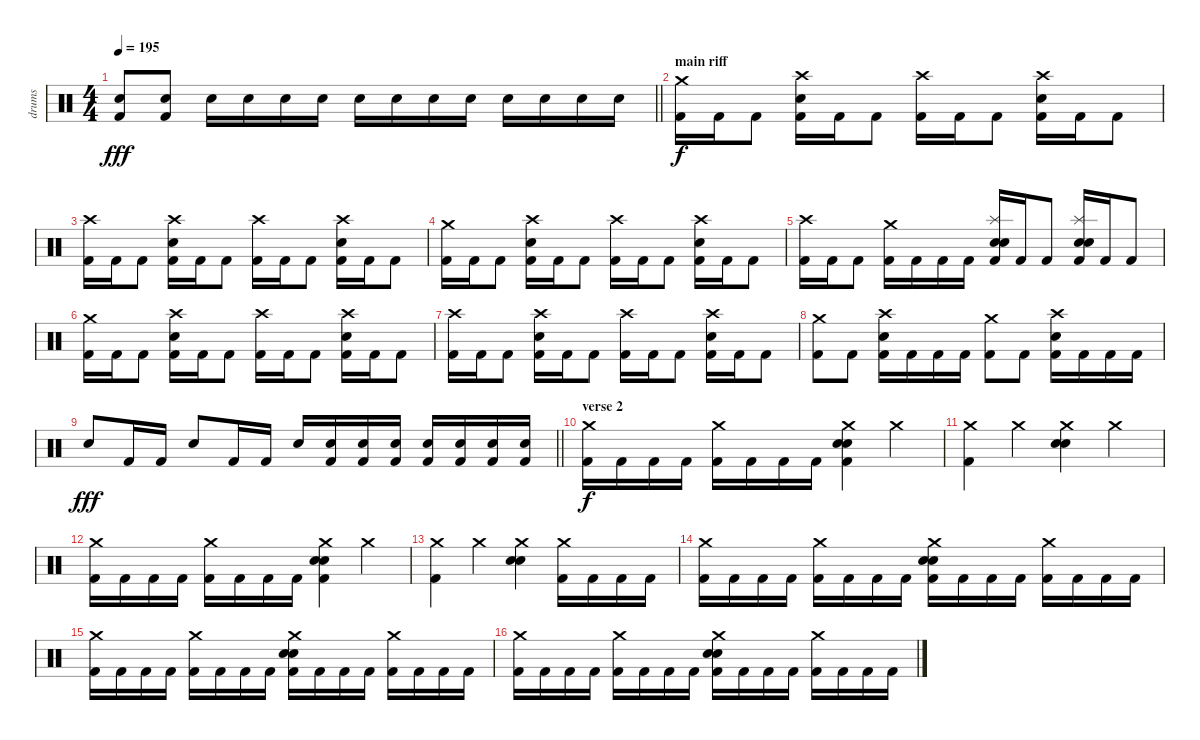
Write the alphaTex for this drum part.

\track ("drums" "drums") {instrument percussion bank 16}
\staff {score}
\articulation defaults
\ts (4 4)
\tempo 195
\clef neutral
\barLineRight lightlight
\ks c
("Electric Snare (hit)" "Kick (hit) 2").8{dy fff} ("Electric Snare (hit)" "Kick (hit) 2").8 "Electric Snare (hit)".16 "Electric Snare (hit)".16 "Electric Snare (hit)".16 "Electric Snare (hit)".16 "Electric Snare (hit)".16 "Electric Snare (hit)".16 "Electric Snare (hit)".16 "Electric Snare (hit)".16 "Electric Snare (hit)".16 "Electric Snare (hit)".16 "Electric Snare (hit)".16 "Electric Snare (hit)".16 |
\section ("" "main riff")
("Crash medium (hit)" "Kick (hit) 2").16{dy f} "Kick (hit) 2".16 "Kick (hit) 2".8 ("Crash high (hit)" "Electric Snare (hit)" "Kick (hit) 2").16 "Kick (hit) 2".16 "Kick (hit) 2".8 ("Crash high (hit)" "Kick (hit) 2").16 "Kick (hit) 2".16 "Kick (hit) 2".8 ("Crash high (hit)" "Electric Snare (hit)" "Kick (hit) 2").16 "Kick (hit) 2".16 "Kick (hit) 2".8 |
("Crash high (hit)" "Kick (hit) 2").16 "Kick (hit) 2".16 "Kick (hit) 2".8 ("Crash high (hit)" "Electric Snare (hit)" "Kick (hit) 2").16 "Kick (hit) 2".16 "Kick (hit) 2".8 ("Crash high (hit)" "Kick (hit) 2").16 "Kick (hit) 2".16 "Kick (hit) 2".8 ("Crash high (hit)" "Electric Snare (hit)" "Kick (hit) 2").16 "Kick (hit) 2".16 "Kick (hit) 2".8 |
("Crash medium (hit)" "Kick (hit) 2").16 "Kick (hit) 2".16 "Kick (hit) 2".8 ("Crash high (hit)" "Electric Snare (hit)" "Kick (hit) 2").16 "Kick (hit) 2".16 "Kick (hit) 2".8 ("Crash high (hit)" "Kick (hit) 2").16 "Kick (hit) 2".16 "Kick (hit) 2".8 ("Crash high (hit)" "Electric Snare (hit)" "Kick (hit) 2").16 "Kick (hit) 2".16 "Kick (hit) 2".8 |
("Crash high (hit)" "Kick (hit) 2").16 "Kick (hit) 2".16 "Kick (hit) 2".8 ("Crash medium (hit)" "Kick (hit) 2").16 "Kick (hit) 2".16 "Kick (hit) 2".16 "Kick (hit) 2".16 ("Splash (hit)" "Snare (hit) 2" "Electric Snare (hit)" "Kick (hit) 2").16 "Kick (hit) 2".16 "Kick (hit) 2".8 ("Splash (hit)" "Snare (hit) 2" "Electric Snare (hit)" "Kick (hit) 2").16 "Kick (hit) 2".16 "Kick (hit) 2".8 |
("Crash medium (hit)" "Kick (hit) 2").16 "Kick (hit) 2".16 "Kick (hit) 2".8 ("Crash high (hit)" "Electric Snare (hit)" "Kick (hit) 2").16 "Kick (hit) 2".16 "Kick (hit) 2".8 ("Crash high (hit)" "Kick (hit) 2").16 "Kick (hit) 2".16 "Kick (hit) 2".8 ("Crash high (hit)" "Electric Snare (hit)" "Kick (hit) 2").16 "Kick (hit) 2".16 "Kick (hit) 2".8 |
("Crash high (hit)" "Kick (hit) 2").16 "Kick (hit) 2".16 "Kick (hit) 2".8 ("Crash high (hit)" "Electric Snare (hit)" "Kick (hit) 2").16 "Kick (hit) 2".16 "Kick (hit) 2".8 ("Crash high (hit)" "Kick (hit) 2").16 "Kick (hit) 2".16 "Kick (hit) 2".8 ("Crash high (hit)" "Electric Snare (hit)" "Kick (hit) 2").16 "Kick (hit) 2".16 "Kick (hit) 2".8 |
("Crash medium (hit)" "Kick (hit) 2").8 "Kick (hit) 2".8 ("Crash high (hit)" "Electric Snare (hit)" "Kick (hit) 2").16 "Kick (hit) 2".16 "Kick (hit) 2".16 "Kick (hit) 2".16 ("Crash medium (hit)" "Kick (hit) 2").8 "Kick (hit) 2".8 ("Crash high (hit)" "Electric Snare (hit)" "Kick (hit) 2").16 "Kick (hit) 2".16 "Kick (hit) 2".16 "Kick (hit) 2".16 |
\barLineRight lightlight "Electric Snare (hit)".8{dy fff} "Kick (hit) 2".16 "Kick (hit) 2".16 "Electric Snare (hit)".8 "Kick (hit) 2".16 "Kick (hit) 2".16 "Electric Snare (hit)".16
("Electric Snare (hit)" "Kick (hit) 2").16 ("Electric Snare (hit)" "Kick (hit) 2").16 ("Electric Snare (hit)" "Kick (hit) 2").16 ("Electric Snare (hit)" "Kick (hit) 2").16 ("Electric Snare (hit)" "Kick (hit) 2").16 ("Electric Snare (hit)" "Kick (hit) 2").16 ("Electric Snare (hit)" "Kick (hit) 2").16 |
\section ("" "verse 2")
("Crash medium (hit)" "Kick (hit) 2").16{dy f} "Kick (hit) 2".16 "Kick (hit) 2".16 "Kick (hit) 2".16 ("Crash medium (hit)" "Kick (hit) 2").16 "Kick (hit) 2".16 "Kick (hit) 2".16 "Kick (hit) 2".16 ("Crash medium (hit)" "Electric Snare (hit)" "Electric Snare (hit)" "Kick (hit) 2").4 "Crash medium (hit)".4 |
("Crash medium (hit)" "Kick (hit) 2").4 "Crash medium (hit)".4 ("Crash medium (hit)" "Electric Snare (hit)" "Electric Snare (hit)").4 "Crash medium (hit)".4 |
("Crash medium (hit)" "Kick (hit) 2").16 "Kick (hit) 2".16 "Kick (hit) 2".16 "Kick (hit) 2".16 ("Crash medium (hit)" "Kick (hit) 2").16 "Kick (hit) 2".16 "Kick (hit) 2".16 "Kick (hit) 2".16 ("Crash medium (hit)" "Electric Snare (hit)" "Electric Snare (hit)" "Kick (hit) 2").4 "Crash medium (hit)".4 |
("Crash medium (hit)" "Kick (hit) 2").4 "Crash medium (hit)".4 ("Crash medium (hit)" "Electric Snare (hit)" "Electric Snare (hit)").4 ("Crash medium (hit)" "Kick (hit) 2").16 "Kick (hit) 2".16 "Kick (hit) 2".16 "Kick (hit) 2".16 |
("Crash medium (hit)" "Kick (hit) 2").16 "Kick (hit) 2".16 "Kick (hit) 2".16 "Kick (hit) 2".16 ("Crash medium (hit)" "Kick (hit) 2").16 "Kick (hit) 2".16 "Kick (hit) 2".16 "Kick (hit) 2".16 ("Crash medium (hit)" "Electric Snare (hit)" "Electric Snare (hit)" "Kick (hit) 2").16 "Kick (hit) 2".16 "Kick (hit) 2".16 "Kick (hit) 2".16 ("Crash medium (hit)" "Kick (hit) 2").16 "Kick (hit) 2".16 "Kick (hit) 2".16 "Kick (hit) 2".16 |
("Crash medium (hit)" "Kick (hit) 2").16 "Kick (hit) 2".16 "Kick (hit) 2".16 "Kick (hit) 2".16 ("Crash medium (hit)" "Kick (hit) 2").16 "Kick (hit) 2".16 "Kick (hit) 2".16 "Kick (hit) 2".16 ("Crash medium (hit)" "Electric Snare (hit)" "Electric Snare (hit)" "Kick (hit) 2").16 "Kick (hit) 2".16 "Kick (hit) 2".16 "Kick (hit) 2".16 ("Crash medium (hit)" "Kick (hit) 2").16 "Kick (hit) 2".16 "Kick (hit) 2".16 "Kick (hit) 2".16 |
("Crash medium (hit)" "Kick (hit) 2").16 "Kick (hit) 2".16 "Kick (hit) 2".16 "Kick (hit) 2".16 ("Crash medium (hit)" "Kick (hit) 2").16 "Kick (hit) 2".16 "Kick (hit) 2".16 "Kick (hit) 2".16 ("Crash medium (hit)" "Electric Snare (hit)" "Electric Snare (hit)" "Kick (hit) 2").16 "Kick (hit) 2".16 "Kick (hit) 2".16 "Kick (hit) 2".16 ("Crash medium (hit)" "Kick (hit) 2").16 "Kick (hit) 2".16 "Kick (hit) 2".16 "Kick (hit) 2".16
